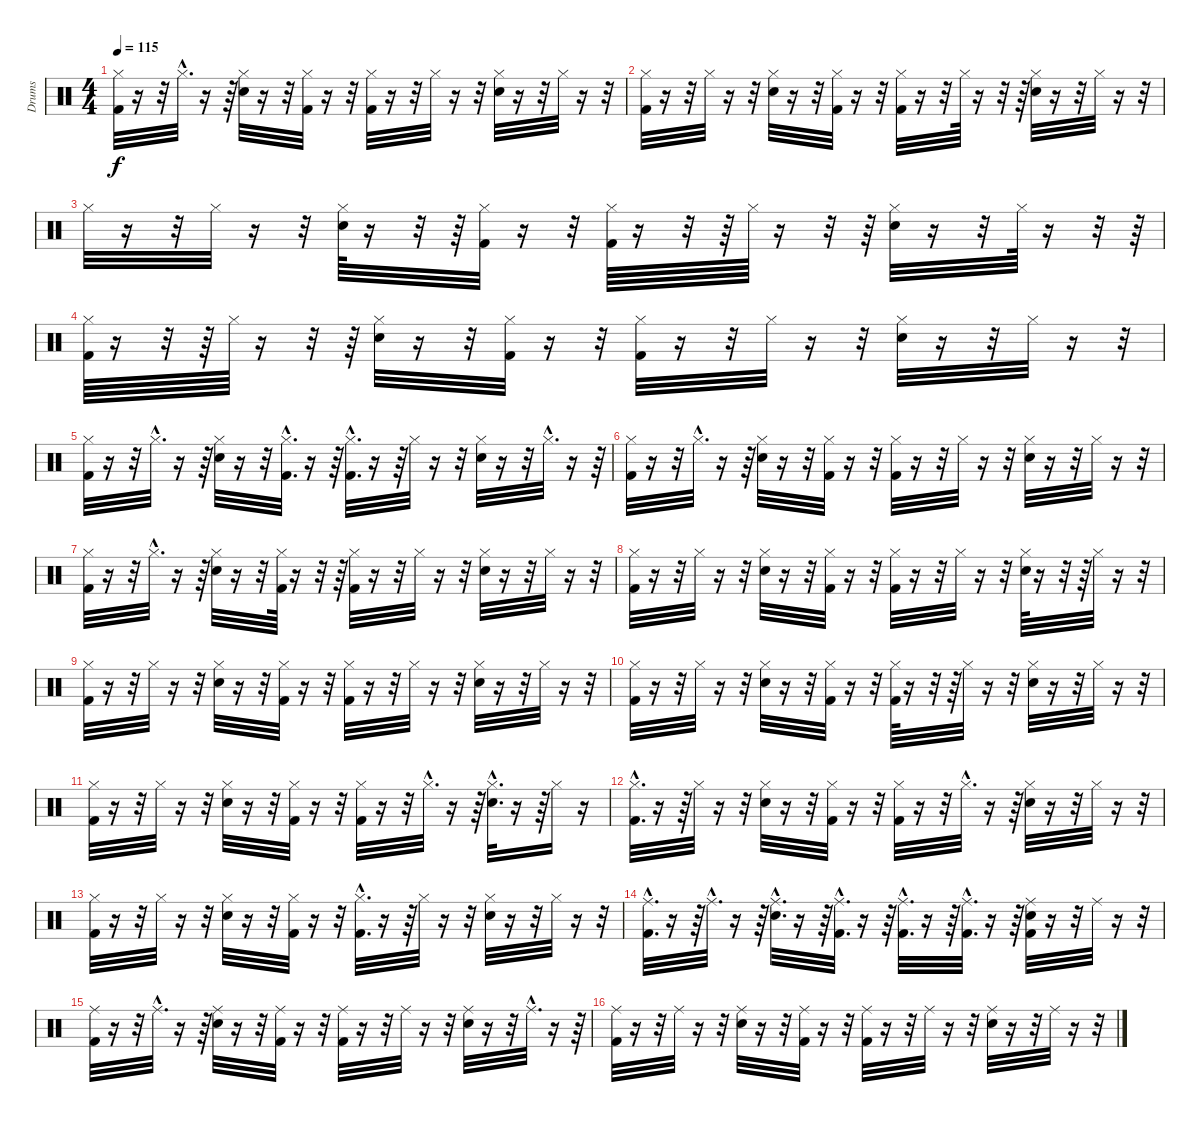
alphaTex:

\track ("Drums               " "Drums     ") {instrument percussion}
\staff {score}
\articulation defaults
\ts (4 4)
\tempo 115
\clef neutral
\ks c
("Hi-Hat (closed)" "Kick (hit) 2").32{dy f} r.16 r.32 "Hi-Hat (closed)"{hac}.32{d} r.16 r.64 ("Hi-Hat (closed)" "Snare (hit) 2").32 r.16 r.32 ("Hi-Hat (closed)" "Kick (hit) 2").32 r.16 r.32 ("Hi-Hat (closed)" "Kick (hit) 2").32 r.16 r.32 "Hi-Hat (closed)".32 r.16 r.32 ("Hi-Hat (closed)" "Snare (hit) 2").32 r.16 r.32 "Hi-Hat (closed)".32 r.16 r.32 |
("Hi-Hat (closed)" "Kick (hit) 2").32 r.16 r.32 "Hi-Hat (closed)".32 r.16 r.32 ("Hi-Hat (closed)" "Snare (hit) 2").32 r.16 r.32 ("Hi-Hat (closed)" "Kick (hit) 2").32 r.16 r.32 ("Hi-Hat (closed)" "Kick (hit) 2").32 r.16 r.32 "Hi-Hat (closed)".64 r.16 r.32 r.64 ("Hi-Hat (closed)" "Snare (hit) 2").32 r.16 r.32 "Hi-Hat (closed)".32 r.16 r.32 |
"Hi-Hat (closed)".32 r.16 r.32 "Hi-Hat (closed)".32 r.16 r.32 ("Hi-Hat (closed)" "Snare (hit) 2").64 r.16 r.32 r.64 ("Hi-Hat (closed)" "Kick (hit) 2").32 r.16 r.32 ("Hi-Hat (closed)" "Kick (hit) 2").64 r.16 r.32 r.64 "Hi-Hat (closed)".64 r.16 r.32 r.64 ("Hi-Hat (closed)" "Snare (hit) 2").32 r.16 r.32 "Hi-Hat (closed)".64 r.16 r.32 r.64 |
("Hi-Hat (closed)" "Kick (hit) 2").64 r.16 r.32 r.64 "Hi-Hat (closed)".64 r.16 r.32 r.64 ("Hi-Hat (closed)" "Snare (hit) 2").32 r.16 r.32 ("Hi-Hat (closed)" "Kick (hit) 2").32 r.16 r.32 ("Hi-Hat (closed)" "Kick (hit) 2").32 r.16 r.32 "Hi-Hat (closed)".32 r.16 r.32 ("Hi-Hat (closed)" "Snare (hit) 2").32 r.16 r.32 "Hi-Hat (closed)".32 r.16 r.32 |
("Hi-Hat (closed)" "Kick (hit) 2").32 r.16 r.32 "Hi-Hat (closed)"{hac}.32{d} r.16 r.64 ("Hi-Hat (closed)" "Snare (hit) 2").32 r.16 r.32 ("Hi-Hat (closed)"{hac} "Kick (hit) 2"{hac}).32{d} r.16 r.64 ("Hi-Hat (closed)"{hac} "Kick (hit) 2"{hac}).32{d} r.16 r.64 "Hi-Hat (closed)".32 r.16 r.32 ("Hi-Hat (closed)" "Snare (hit) 2").32 r.16 r.32 "Hi-Hat (closed)"{hac}.32{d} r.16 r.64 |
("Hi-Hat (closed)" "Kick (hit) 2").32 r.16 r.32 "Hi-Hat (closed)"{hac}.32{d} r.16 r.64 ("Hi-Hat (closed)" "Snare (hit) 2").32 r.16 r.32 ("Hi-Hat (closed)" "Kick (hit) 2").32 r.16 r.32 ("Hi-Hat (closed)" "Kick (hit) 2").32 r.16 r.32 "Hi-Hat (closed)".32 r.16 r.32 ("Hi-Hat (closed)" "Snare (hit) 2").32 r.16 r.32 "Hi-Hat (closed)".32 r.16 r.32 |
("Hi-Hat (closed)" "Kick (hit) 2").32 r.16 r.32 "Hi-Hat (closed)"{hac}.32{d} r.16 r.64 ("Hi-Hat (closed)" "Snare (hit) 2").32 r.16 r.32 ("Hi-Hat (closed)" "Kick (hit) 2").64 r.16 r.32 r.64 ("Hi-Hat (closed)" "Kick (hit) 2").32 r.16 r.32 "Hi-Hat (closed)".32 r.16 r.32 ("Hi-Hat (closed)" "Snare (hit) 2").32 r.16 r.32 "Hi-Hat (closed)".32 r.16 r.32 |
("Hi-Hat (closed)" "Kick (hit) 2").32 r.16 r.32 "Hi-Hat (closed)".32 r.16 r.32 ("Hi-Hat (closed)" "Snare (hit) 2").32 r.16 r.32 ("Hi-Hat (closed)" "Kick (hit) 2").32 r.16 r.32 ("Hi-Hat (closed)" "Kick (hit) 2").32 r.16 r.32 "Hi-Hat (closed)".32 r.16 r.32 ("Hi-Hat (closed)" "Snare (hit) 2").64 r.16 r.32 r.64 "Hi-Hat (closed)".32 r.16 r.32 |
("Hi-Hat (closed)" "Kick (hit) 2").32 r.16 r.32 "Hi-Hat (closed)".32 r.16 r.32 ("Hi-Hat (closed)" "Snare (hit) 2").32 r.16 r.32 ("Hi-Hat (closed)" "Kick (hit) 2").32 r.16 r.32 ("Hi-Hat (closed)" "Kick (hit) 2").32 r.16 r.32 "Hi-Hat (closed)".32 r.16 r.32 ("Hi-Hat (closed)" "Snare (hit) 2").32 r.16 r.32 "Hi-Hat (closed)".32 r.16 r.32 |
("Hi-Hat (closed)" "Kick (hit) 2").32 r.16 r.32 "Hi-Hat (closed)".32 r.16 r.32 ("Hi-Hat (closed)" "Snare (hit) 2").32 r.16 r.32 ("Hi-Hat (closed)" "Kick (hit) 2").32 r.16 r.32 ("Hi-Hat (closed)" "Kick (hit) 2").64 r.16 r.32 r.64 "Hi-Hat (closed)".32 r.16 r.32 ("Hi-Hat (closed)" "Snare (hit) 2").32 r.16 r.32 "Hi-Hat (closed)".32 r.16 r.32 |
("Hi-Hat (closed)" "Kick (hit) 2").32 r.16 r.32 "Hi-Hat (closed)".32 r.16 r.32 ("Hi-Hat (closed)" "Snare (hit) 2").32 r.16 r.32 ("Hi-Hat (closed)" "Kick (hit) 2").32 r.16 r.32 ("Hi-Hat (closed)" "Kick (hit) 2").32 r.16 r.32 "Hi-Hat (closed)"{hac}.32{d} r.16 r.64 ("Hi-Hat (closed)"{hac} "Snare (hit) 2"{hac}).32{d} r.16 r.64 "Hi-Hat (closed)".16 r.16 |
("Hi-Hat (closed)"{hac} "Kick (hit) 2"{hac}).32{d} r.16 r.64 "Hi-Hat (closed)".32 r.16 r.32 ("Hi-Hat (closed)" "Snare (hit) 2").32 r.16 r.32 ("Hi-Hat (closed)" "Kick (hit) 2").32 r.16 r.32 ("Hi-Hat (closed)" "Kick (hit) 2").32 r.16 r.32 "Hi-Hat (closed)"{hac}.32{d} r.16 r.64 ("Hi-Hat (closed)" "Snare (hit) 2").32 r.16 r.32 "Hi-Hat (closed)".32 r.16 r.32 |
("Hi-Hat (closed)" "Kick (hit) 2").32 r.16 r.32 "Hi-Hat (closed)".32 r.16 r.32 ("Hi-Hat (closed)" "Snare (hit) 2").32 r.16 r.32 ("Hi-Hat (closed)" "Kick (hit) 2").32 r.16 r.32 ("Hi-Hat (closed)"{hac} "Kick (hit) 2"{hac}).32{d} r.16 r.64 "Hi-Hat (closed)".32 r.16 r.32 ("Hi-Hat (closed)" "Snare (hit) 2").32 r.16 r.32 "Hi-Hat (closed)".32 r.16 r.32 |
("Ride (middle)"{hac} "Kick (hit) 2"{hac}).32{d} r.16 r.64 "Ride (middle)"{hac}.32{d} r.16 r.64 ("Ride (middle)"{hac} "Snare (hit) 2"{hac}).32{d} r.16 r.64 ("Ride (middle)"{hac} "Kick (hit) 2"{hac}).32{d} r.16 r.64 ("Ride (middle)"{hac} "Kick (hit) 2"{hac}).32{d} r.16 r.64 ("Ride (middle)"{hac} "Kick (hit) 2"{hac}).32{d} r.16 r.64 ("Ride (middle)" "Kick (hit) 2" "Snare (hit) 2").32 r.16 r.32 "Ride (middle)".32 r.16 r.32 |
("Ride (middle)" "Kick (hit) 2").32 r.16 r.32 "Ride (middle)"{hac}.32{d} r.16 r.64 ("Ride (middle)" "Snare (hit) 2").32 r.16 r.32 ("Ride (middle)" "Kick (hit) 2").32 r.16 r.32 ("Ride (middle)" "Kick (hit) 2").32 r.16 r.32 "Ride (middle)".32 r.16 r.32 ("Ride (middle)" "Snare (hit) 2").32 r.16 r.32 "Ride (middle)"{hac}.32{d} r.16 r.64 |
("Ride (middle)" "Kick (hit) 2").32 r.16 r.32 "Ride (middle)".32 r.16 r.32 ("Ride (middle)" "Snare (hit) 2").32 r.16 r.32 ("Ride (middle)" "Kick (hit) 2").32 r.16 r.32 ("Ride (middle)" "Kick (hit) 2").32 r.16 r.32 "Ride (middle)".32 r.16 r.32 ("Ride (middle)" "Snare (hit) 2").32 r.16 r.32 "Ride (middle)".32 r.16 r.32
